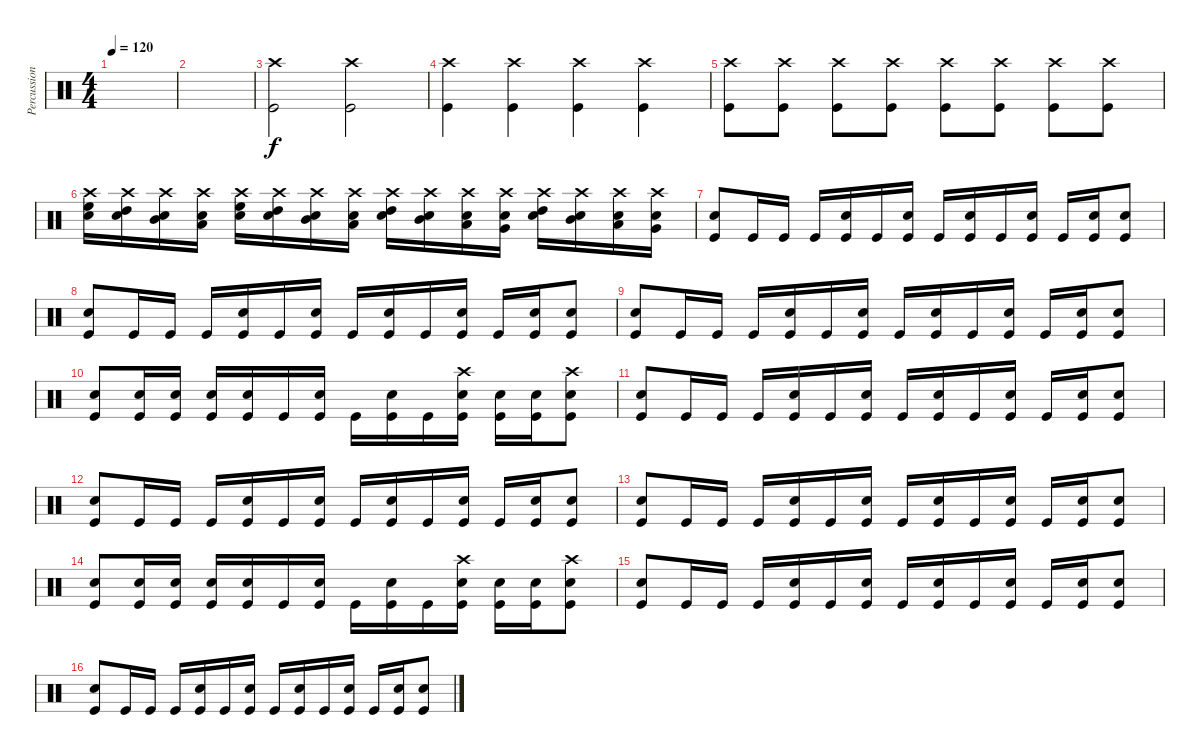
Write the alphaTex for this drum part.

\track ("Percussion" "Percussion") {instrument percussion}
\staff {score}
\articulation defaults
\ts (4 4)
\tempo 120
\clef neutral
\ks c
|
|
("Crash high (hit)" "Kick (hit)").2 ("Crash high (hit)" "Kick (hit)").2 |
("Crash high (hit)" "Kick (hit)").4 ("Crash high (hit)" "Kick (hit)").4 ("Crash high (hit)" "Kick (hit)").4 ("Crash high (hit)" "Kick (hit)").4 |
("Crash high (hit)" "Kick (hit)").8 ("Crash high (hit)" "Kick (hit)").8 ("Crash high (hit)" "Kick (hit)").8 ("Crash high (hit)" "Kick (hit)").8 ("Crash high (hit)" "Kick (hit)").8 ("Crash high (hit)" "Kick (hit)").8 ("Crash high (hit)" "Kick (hit)").8 ("Crash high (hit)" "Kick (hit)").8 |
("High Floor Tom (hit)" "Crash high (hit)" "Snare (hit) 2").16 ("High Tom (hit)" "Crash high (hit)" "Snare (hit) 2").16 ("Mid Tom (hit)" "Crash high (hit)" "Snare (hit) 2").16 ("Low Tom (hit)" "Crash high (hit)" "Snare (hit) 2").16 ("High Floor Tom (hit)" "Crash high (hit)" "Snare (hit) 2").16 ("High Tom (hit)" "Crash high (hit)" "Snare (hit) 2").16 ("Mid Tom (hit)" "Crash high (hit)" "Snare (hit) 2").16 ("Low Tom (hit)" "Crash high (hit)" "Snare (hit) 2").16 ("High Tom (hit)" "Crash high (hit)" "Snare (hit) 2").16 ("Mid Tom (hit)" "Crash high (hit)" "Snare (hit) 2").16 ("Low Tom (hit)" "Crash high (hit)" "Snare (hit) 2").16 ("Very Low Tom (hit)" "Crash high (hit)" "Snare (hit) 2").16 ("High Tom (hit)" "Crash high (hit)" "Snare (hit) 2").16 ("Mid Tom (hit)" "Crash high (hit)" "Snare (hit) 2").16 ("Low Tom (hit)" "Crash high (hit)" "Snare (hit) 2").16 ("Very Low Tom (hit)" "Crash high (hit)" "Snare (hit) 2").16 |
("Kick (hit)" "Snare (hit) 2").8 "Kick (hit)".16 "Kick (hit)".16 "Kick (hit)".16 ("Kick (hit)" "Snare (hit) 2").16 "Kick (hit)".16 ("Kick (hit)" "Snare (hit) 2").16 "Kick (hit)".16 ("Kick (hit)" "Snare (hit) 2").16 "Kick (hit)".16 ("Kick (hit)" "Snare (hit) 2").16 "Kick (hit)".16 ("Kick (hit)" "Snare (hit) 2").16 ("Kick (hit)" "Snare (hit) 2").8 |
("Kick (hit)" "Snare (hit) 2").8 "Kick (hit)".16 "Kick (hit)".16 "Kick (hit)".16 ("Kick (hit)" "Snare (hit) 2").16 "Kick (hit)".16 ("Kick (hit)" "Snare (hit) 2").16 "Kick (hit)".16 ("Kick (hit)" "Snare (hit) 2").16 "Kick (hit)".16 ("Kick (hit)" "Snare (hit) 2").16 "Kick (hit)".16 ("Kick (hit)" "Snare (hit) 2").16 ("Kick (hit)" "Snare (hit) 2").8 |
("Kick (hit)" "Snare (hit) 2").8 "Kick (hit)".16 "Kick (hit)".16 "Kick (hit)".16 ("Kick (hit)" "Snare (hit) 2").16 "Kick (hit)".16 ("Kick (hit)" "Snare (hit) 2").16 "Kick (hit)".16 ("Kick (hit)" "Snare (hit) 2").16 "Kick (hit)".16 ("Kick (hit)" "Snare (hit) 2").16 "Kick (hit)".16 ("Kick (hit)" "Snare (hit) 2").16 ("Kick (hit)" "Snare (hit) 2").8 |
("Kick (hit)" "Snare (hit) 2").8 ("Kick (hit)" "Snare (hit) 2").16 ("Kick (hit)" "Snare (hit) 2").16 ("Kick (hit)" "Snare (hit) 2").16 ("Kick (hit)" "Snare (hit) 2").16 "Kick (hit)".16 ("Kick (hit)" "Snare (hit) 2").16 "Kick (hit)".16 ("Kick (hit)" "Snare (hit) 2").16 "Kick (hit)".16 ("Kick (hit)" "Snare (hit) 2" "Crash high (hit)").16 ("Kick (hit)" "Snare (hit) 2").16 ("Kick (hit)" "Snare (hit) 2").16 ("Kick (hit)" "Snare (hit) 2" "Crash high (hit)").8 |
("Kick (hit)" "Snare (hit) 2").8 "Kick (hit)".16 "Kick (hit)".16 "Kick (hit)".16 ("Kick (hit)" "Snare (hit) 2").16 "Kick (hit)".16 ("Kick (hit)" "Snare (hit) 2").16 "Kick (hit)".16 ("Kick (hit)" "Snare (hit) 2").16 "Kick (hit)".16 ("Kick (hit)" "Snare (hit) 2").16 "Kick (hit)".16 ("Kick (hit)" "Snare (hit) 2").16 ("Kick (hit)" "Snare (hit) 2").8 |
("Kick (hit)" "Snare (hit) 2").8 "Kick (hit)".16 "Kick (hit)".16 "Kick (hit)".16 ("Kick (hit)" "Snare (hit) 2").16 "Kick (hit)".16 ("Kick (hit)" "Snare (hit) 2").16 "Kick (hit)".16 ("Kick (hit)" "Snare (hit) 2").16 "Kick (hit)".16 ("Kick (hit)" "Snare (hit) 2").16 "Kick (hit)".16 ("Kick (hit)" "Snare (hit) 2").16 ("Kick (hit)" "Snare (hit) 2").8 |
("Kick (hit)" "Snare (hit) 2").8 "Kick (hit)".16 "Kick (hit)".16 "Kick (hit)".16 ("Kick (hit)" "Snare (hit) 2").16 "Kick (hit)".16 ("Kick (hit)" "Snare (hit) 2").16 "Kick (hit)".16 ("Kick (hit)" "Snare (hit) 2").16 "Kick (hit)".16 ("Kick (hit)" "Snare (hit) 2").16 "Kick (hit)".16 ("Kick (hit)" "Snare (hit) 2").16 ("Kick (hit)" "Snare (hit) 2").8 |
("Kick (hit)" "Snare (hit) 2").8 ("Kick (hit)" "Snare (hit) 2").16 ("Kick (hit)" "Snare (hit) 2").16 ("Kick (hit)" "Snare (hit) 2").16 ("Kick (hit)" "Snare (hit) 2").16 "Kick (hit)".16 ("Kick (hit)" "Snare (hit) 2").16 "Kick (hit)".16 ("Kick (hit)" "Snare (hit) 2").16 "Kick (hit)".16 ("Kick (hit)" "Snare (hit) 2" "Crash high (hit)").16 ("Kick (hit)" "Snare (hit) 2").16 ("Kick (hit)" "Snare (hit) 2").16 ("Kick (hit)" "Snare (hit) 2" "Crash high (hit)").8 |
("Kick (hit)" "Snare (hit) 2").8 "Kick (hit)".16 "Kick (hit)".16 "Kick (hit)".16 ("Kick (hit)" "Snare (hit) 2").16 "Kick (hit)".16 ("Kick (hit)" "Snare (hit) 2").16 "Kick (hit)".16 ("Kick (hit)" "Snare (hit) 2").16 "Kick (hit)".16 ("Kick (hit)" "Snare (hit) 2").16 "Kick (hit)".16 ("Kick (hit)" "Snare (hit) 2").16 ("Kick (hit)" "Snare (hit) 2").8 |
("Kick (hit)" "Snare (hit) 2").8 "Kick (hit)".16 "Kick (hit)".16 "Kick (hit)".16 ("Kick (hit)" "Snare (hit) 2").16 "Kick (hit)".16 ("Kick (hit)" "Snare (hit) 2").16 "Kick (hit)".16 ("Kick (hit)" "Snare (hit) 2").16 "Kick (hit)".16 ("Kick (hit)" "Snare (hit) 2").16 "Kick (hit)".16 ("Kick (hit)" "Snare (hit) 2").16 ("Kick (hit)" "Snare (hit) 2").8
